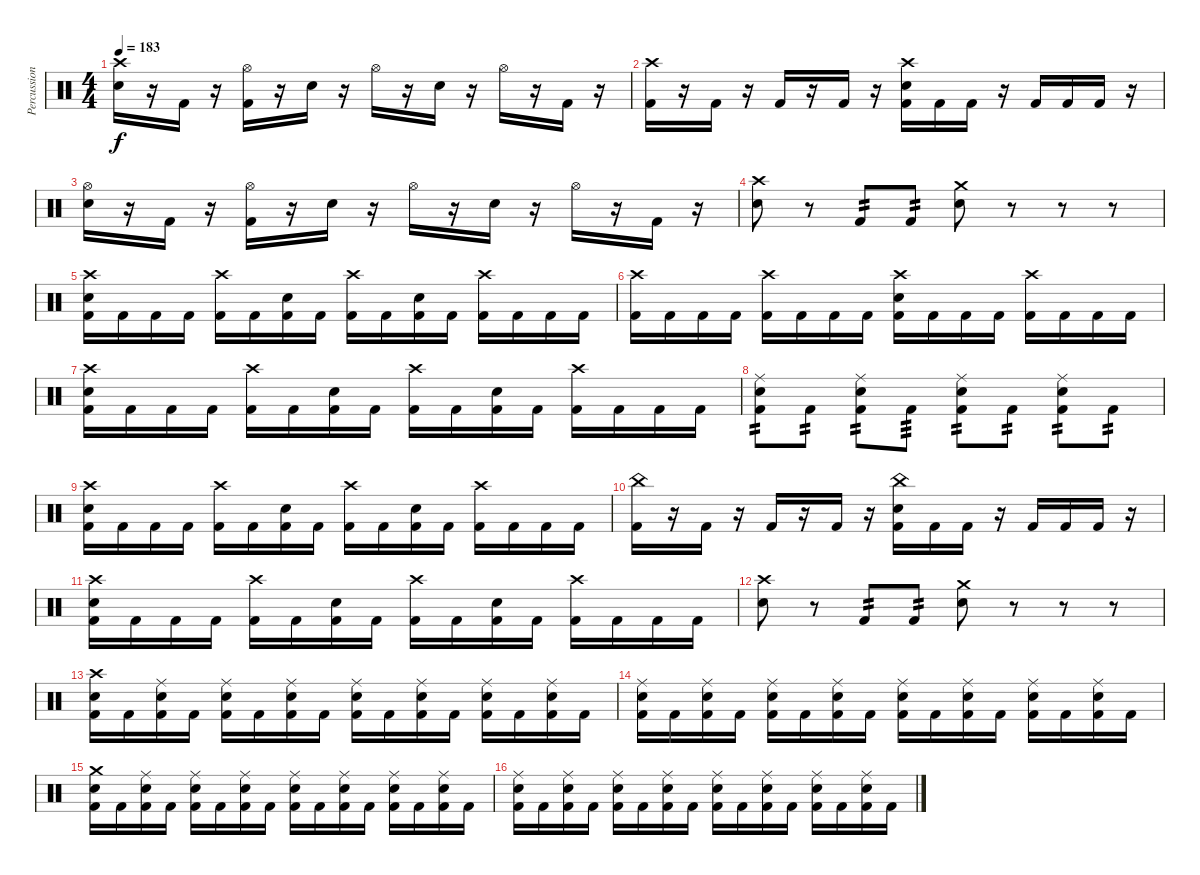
\track ("Percussion" "Percussion") {instrument percussion}
\staff {score}
\articulation defaults
\ts (4 4)
\tempo 183
\clef neutral
\ks c
("Crash high (hit)" "Snare (hit) 2").16{dy f} r.16 "Kick (hit) 2".16 r.16 ("Hi-Hat (open)" "Kick (hit) 2").16 r.16 "Snare (hit) 2".16 r.16 "Hi-Hat (open)".16 r.16 "Snare (hit) 2".16 r.16 "Hi-Hat (open)".16 r.16 "Kick (hit) 2".16 r.16 |
("Crash high (hit)" "Kick (hit) 2").16 r.16 "Kick (hit) 2".16 r.16 "Kick (hit) 2".16 r.16 "Kick (hit) 2".16 r.16 ("Crash high (hit)" "Snare (hit) 2" "Kick (hit) 2").16 "Kick (hit) 2".16 "Kick (hit) 2".16 r.16 "Kick (hit) 2".16 "Kick (hit) 2".16 "Kick (hit) 2".16 r.16 |
("Hi-Hat (open)" "Snare (hit) 2").16 r.16 "Kick (hit) 2".16 r.16 ("Hi-Hat (open)" "Kick (hit) 2").16 r.16 "Snare (hit) 2".16 r.16 "Hi-Hat (open)".16 r.16 "Snare (hit) 2".16 r.16 "Hi-Hat (open)".16 r.16 "Kick (hit) 2".16 r.16 |
("Crash high (hit)" "Snare (hit) 2").8 r.8 "Kick (hit) 2".8{tp 2} "Kick (hit) 2".8{tp 2} ("Crash medium (hit)" "Snare (hit) 2").8 r.8 r.8 r.8 |
("Crash high (hit)" "Snare (hit) 2" "Kick (hit) 2").16 "Kick (hit) 2".16 "Kick (hit) 2".16 "Kick (hit) 2".16 ("Crash high (hit)" "Kick (hit) 2").16 "Kick (hit) 2".16 ("Snare (hit) 2" "Kick (hit) 2").16 "Kick (hit) 2".16 ("Crash high (hit)" "Kick (hit) 2").16 "Kick (hit) 2".16 ("Snare (hit) 2" "Kick (hit) 2").16 "Kick (hit) 2".16 ("Crash high (hit)" "Kick (hit) 2").16 "Kick (hit) 2".16 "Kick (hit) 2".16 "Kick (hit) 2".16 |
("Crash high (hit)" "Kick (hit) 2").16 "Kick (hit) 2".16 "Kick (hit) 2".16 "Kick (hit) 2".16 ("Crash high (hit)" "Kick (hit) 2").16 "Kick (hit) 2".16 "Kick (hit) 2".16 "Kick (hit) 2".16 ("Crash high (hit)" "Snare (hit) 2" "Kick (hit) 2").16 "Kick (hit) 2".16 "Kick (hit) 2".16 "Kick (hit) 2".16 ("Crash high (hit)" "Kick (hit) 2").16 "Kick (hit) 2".16 "Kick (hit) 2".16 "Kick (hit) 2".16 |
("Crash high (hit)" "Snare (hit) 2" "Kick (hit) 2").16 "Kick (hit) 2".16 "Kick (hit) 2".16 "Kick (hit) 2".16 ("Crash high (hit)" "Kick (hit) 2").16 "Kick (hit) 2".16 ("Snare (hit) 2" "Kick (hit) 2").16 "Kick (hit) 2".16 ("Crash high (hit)" "Kick (hit) 2").16 "Kick (hit) 2".16 ("Snare (hit) 2" "Kick (hit) 2").16 "Kick (hit) 2".16 ("Crash high (hit)" "Kick (hit) 2").16 "Kick (hit) 2".16 "Kick (hit) 2".16 "Kick (hit) 2".16 |
("Ride (middle)" "Snare (hit) 2" "Kick (hit) 2").8{tp 2} "Kick (hit) 2".8{tp 2} ("Ride (middle)" "Snare (hit) 2" "Kick (hit) 2").8{tp 2} "Kick (hit) 2".8{tp 3} ("Ride (middle)" "Snare (hit) 2" "Kick (hit) 2").8{tp 2} "Kick (hit) 2".8{tp 2} ("Ride (middle)" "Snare (hit) 2" "Kick (hit) 2").8{tp 2} "Kick (hit) 2".8{tp 2} |
("Crash high (hit)" "Snare (hit) 2" "Kick (hit) 2").16 "Kick (hit) 2".16 "Kick (hit) 2".16 "Kick (hit) 2".16 ("Crash high (hit)" "Kick (hit) 2").16 "Kick (hit) 2".16 ("Snare (hit) 2" "Kick (hit) 2").16 "Kick (hit) 2".16 ("Crash high (hit)" "Kick (hit) 2").16 "Kick (hit) 2".16 ("Snare (hit) 2" "Kick (hit) 2").16 "Kick (hit) 2".16 ("Crash high (hit)" "Kick (hit) 2").16 "Kick (hit) 2".16 "Kick (hit) 2".16 "Kick (hit) 2".16 |
("China (hit)" "Kick (hit) 2").16 r.16 "Kick (hit) 2".16 r.16 "Kick (hit) 2".16 r.16 "Kick (hit) 2".16 r.16 ("China (hit)" "Snare (hit) 2" "Kick (hit) 2").16 "Kick (hit) 2".16 "Kick (hit) 2".16 r.16 "Kick (hit) 2".16 "Kick (hit) 2".16 "Kick (hit) 2".16 r.16 |
("Crash high (hit)" "Snare (hit) 2" "Kick (hit) 2").16 "Kick (hit) 2".16 "Kick (hit) 2".16 "Kick (hit) 2".16 ("Crash high (hit)" "Kick (hit) 2").16 "Kick (hit) 2".16 ("Snare (hit) 2" "Kick (hit) 2").16 "Kick (hit) 2".16 ("Crash high (hit)" "Kick (hit) 2").16 "Kick (hit) 2".16 ("Snare (hit) 2" "Kick (hit) 2").16 "Kick (hit) 2".16 ("Crash high (hit)" "Kick (hit) 2").16 "Kick (hit) 2".16 "Kick (hit) 2".16 "Kick (hit) 2".16 |
("Crash high (hit)" "Snare (hit) 2").8 r.8 "Kick (hit) 2".8{tp 2} "Kick (hit) 2".8{tp 2} ("Crash medium (hit)" "Snare (hit) 2").8 r.8 r.8 r.8 |
("Crash high (hit)" "Snare (hit) 2" "Kick (hit) 2").16 "Kick (hit) 2".16 ("Ride (middle)" "Snare (hit) 2" "Kick (hit) 2").16 "Kick (hit) 2".16 ("Ride (middle)" "Snare (hit) 2" "Kick (hit) 2").16 "Kick (hit) 2".16 ("Ride (middle)" "Snare (hit) 2" "Kick (hit) 2").16 "Kick (hit) 2".16 ("Ride (middle)" "Snare (hit) 2" "Kick (hit) 2").16 "Kick (hit) 2".16 ("Ride (middle)" "Snare (hit) 2" "Kick (hit) 2").16 "Kick (hit) 2".16 ("Ride (middle)" "Snare (hit) 2" "Kick (hit) 2").16 "Kick (hit) 2".16 ("Ride (middle)" "Snare (hit) 2" "Kick (hit) 2").16 "Kick (hit) 2".16 |
("Ride (middle)" "Snare (hit) 2" "Kick (hit) 2").16 "Kick (hit) 2".16 ("Ride (middle)" "Snare (hit) 2" "Kick (hit) 2").16 "Kick (hit) 2".16 ("Ride (middle)" "Snare (hit) 2" "Kick (hit) 2").16 "Kick (hit) 2".16 ("Ride (middle)" "Snare (hit) 2" "Kick (hit) 2").16 "Kick (hit) 2".16 ("Ride (middle)" "Snare (hit) 2" "Kick (hit) 2").16 "Kick (hit) 2".16 ("Ride (middle)" "Snare (hit) 2" "Kick (hit) 2").16 "Kick (hit) 2".16 ("Ride (middle)" "Snare (hit) 2" "Kick (hit) 2").16 "Kick (hit) 2".16 ("Ride (middle)" "Snare (hit) 2" "Kick (hit) 2").16 "Kick (hit) 2".16 |
("Crash medium (hit)" "Snare (hit) 2" "Kick (hit) 2").16 "Kick (hit) 2".16 ("Ride (middle)" "Snare (hit) 2" "Kick (hit) 2").16 "Kick (hit) 2".16 ("Ride (middle)" "Snare (hit) 2" "Kick (hit) 2").16 "Kick (hit) 2".16 ("Ride (middle)" "Snare (hit) 2" "Kick (hit) 2").16 "Kick (hit) 2".16 ("Ride (middle)" "Snare (hit) 2" "Kick (hit) 2").16 "Kick (hit) 2".16 ("Ride (middle)" "Snare (hit) 2" "Kick (hit) 2").16 "Kick (hit) 2".16 ("Ride (middle)" "Snare (hit) 2" "Kick (hit) 2").16 "Kick (hit) 2".16 ("Ride (middle)" "Snare (hit) 2" "Kick (hit) 2").16 "Kick (hit) 2".16 |
("Ride (middle)" "Snare (hit) 2" "Kick (hit) 2").16 "Kick (hit) 2".16 ("Ride (middle)" "Snare (hit) 2" "Kick (hit) 2").16 "Kick (hit) 2".16 ("Ride (middle)" "Snare (hit) 2" "Kick (hit) 2").16 "Kick (hit) 2".16 ("Ride (middle)" "Snare (hit) 2" "Kick (hit) 2").16 "Kick (hit) 2".16 ("Ride (middle)" "Snare (hit) 2" "Kick (hit) 2").16 "Kick (hit) 2".16 ("Ride (middle)" "Snare (hit) 2" "Kick (hit) 2").16 "Kick (hit) 2".16 ("Ride (middle)" "Snare (hit) 2" "Kick (hit) 2").16 "Kick (hit) 2".16 ("Ride (middle)" "Snare (hit) 2" "Kick (hit) 2").16 "Kick (hit) 2".16
